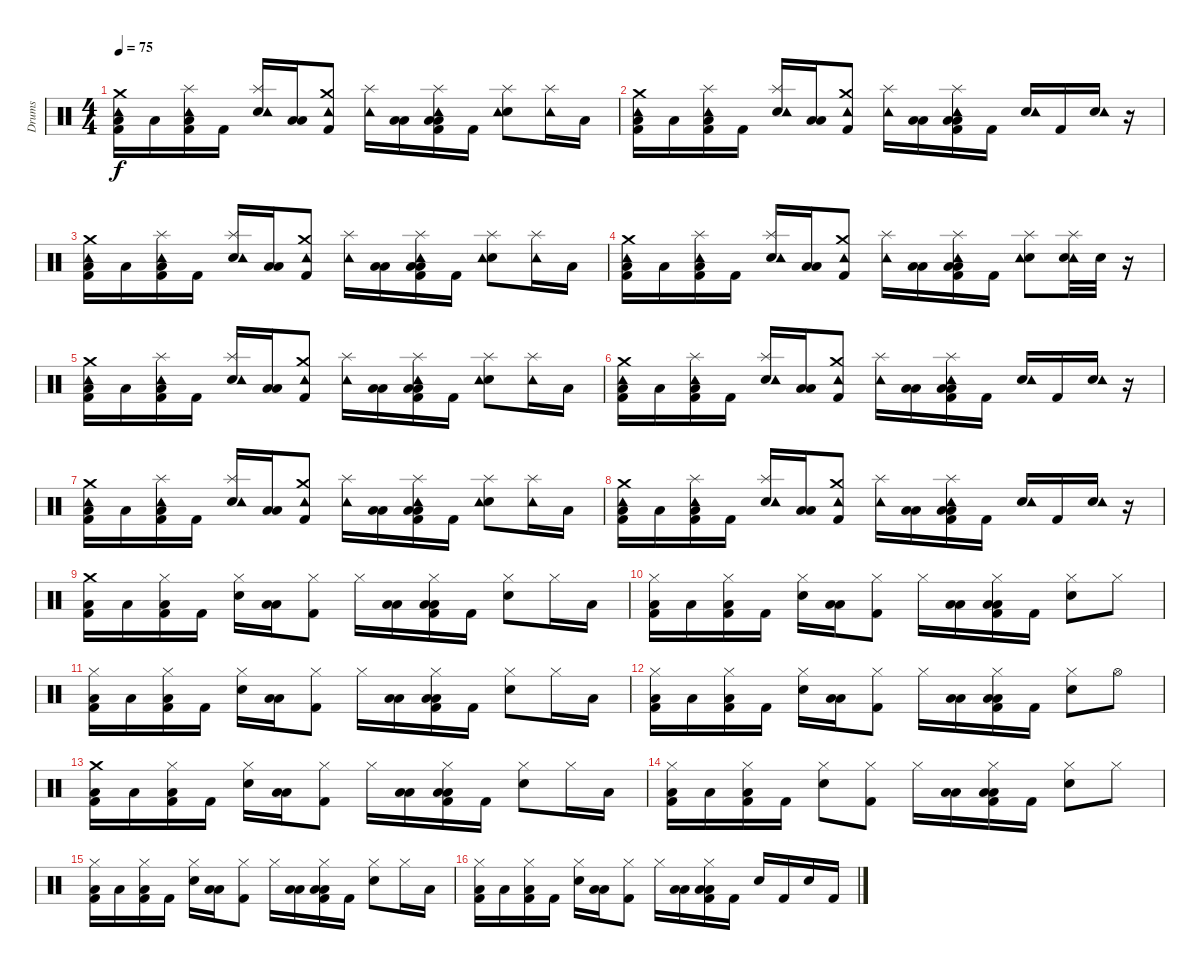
\track ("Drums" "Drums") {instrument percussion}
\staff {score}
\articulation defaults
\ts (4 4)
\tempo 75
\clef neutral
\ks c
("Kick (hit) 2" "Low Floor Tom (hit)" "Crash medium (hit)" "Tambourine (hit)").16{dy f} "Low Tom (hit)".16 ("Kick (hit) 2" "Low Floor Tom (hit)" "Splash (hit)" "Tambourine (hit)").16 "Kick (hit) 2".16 ("Snare (hit) 2" "Splash (hit)" "Tambourine (hit)").16 ("Low Tom (hit)" "Low Floor Tom (hit)").16 ("Kick (hit) 2" "Crash medium (hit)" "Tambourine (hit)").8 ("Splash (hit)" "Tambourine (hit)").16 ("Low Tom (hit)" "Low Floor Tom (hit)").16 ("Kick (hit) 2" "Low Floor Tom (hit)" "Low Tom (hit)" "Splash (hit)" "Tambourine (hit)").16 "Kick (hit) 2".16 ("Snare (hit) 2" "Splash (hit)" "Tambourine (hit)").8 ("Splash (hit)" "Tambourine (hit)").16 "Low Tom (hit)".16 |
("Kick (hit) 2" "Low Floor Tom (hit)" "Crash medium (hit)" "Tambourine (hit)").16 "Low Tom (hit)".16 ("Kick (hit) 2" "Low Floor Tom (hit)" "Splash (hit)" "Tambourine (hit)").16 "Kick (hit) 2".16 ("Snare (hit) 2" "Splash (hit)" "Tambourine (hit)").16 ("Low Tom (hit)" "Low Floor Tom (hit)").16 ("Kick (hit) 2" "Crash medium (hit)" "Tambourine (hit)").8 ("Splash (hit)" "Tambourine (hit)").16 ("Low Tom (hit)" "Low Floor Tom (hit)").16 ("Kick (hit) 2" "Low Floor Tom (hit)" "Low Tom (hit)" "Splash (hit)" "Tambourine (hit)").16 "Kick (hit) 2".16 ("Snare (hit) 2" "Tambourine (hit)").16 "Kick (hit) 2".16 ("Snare (hit) 2" "Tambourine (hit)").16 r.16 |
("Kick (hit) 2" "Low Floor Tom (hit)" "Crash medium (hit)" "Tambourine (hit)").16 "Low Tom (hit)".16 ("Kick (hit) 2" "Low Floor Tom (hit)" "Splash (hit)" "Tambourine (hit)").16 "Kick (hit) 2".16 ("Snare (hit) 2" "Splash (hit)" "Tambourine (hit)").16 ("Low Tom (hit)" "Low Floor Tom (hit)").16 ("Kick (hit) 2" "Crash medium (hit)" "Tambourine (hit)").8 ("Splash (hit)" "Tambourine (hit)").16 ("Low Tom (hit)" "Low Floor Tom (hit)").16 ("Kick (hit) 2" "Low Floor Tom (hit)" "Low Tom (hit)" "Splash (hit)" "Tambourine (hit)").16 "Kick (hit) 2".16 ("Snare (hit) 2" "Splash (hit)" "Tambourine (hit)").8 ("Splash (hit)" "Tambourine (hit)").16 "Low Tom (hit)".16 |
("Kick (hit) 2" "Low Floor Tom (hit)" "Crash medium (hit)" "Tambourine (hit)").16 "Low Tom (hit)".16 ("Kick (hit) 2" "Low Floor Tom (hit)" "Splash (hit)" "Tambourine (hit)").16 "Kick (hit) 2".16 ("Snare (hit) 2" "Splash (hit)" "Tambourine (hit)").16 ("Low Tom (hit)" "Low Floor Tom (hit)").16 ("Kick (hit) 2" "Crash medium (hit)" "Tambourine (hit)").8 ("Splash (hit)" "Tambourine (hit)").16 ("Low Tom (hit)" "Low Floor Tom (hit)").16 ("Kick (hit) 2" "Low Floor Tom (hit)" "Low Tom (hit)" "Splash (hit)" "Tambourine (hit)").16 "Kick (hit) 2".16 ("Snare (hit) 2" "Splash (hit)" "Tambourine (hit)").8 ("Splash (hit)" "Tambourine (hit)" "Snare (hit) 2").32 "Snare (hit) 2".32 r.16 |
("Kick (hit) 2" "Low Floor Tom (hit)" "Crash medium (hit)" "Tambourine (hit)").16 "Low Tom (hit)".16 ("Kick (hit) 2" "Low Floor Tom (hit)" "Splash (hit)" "Tambourine (hit)").16 "Kick (hit) 2".16 ("Snare (hit) 2" "Splash (hit)" "Tambourine (hit)").16 ("Low Tom (hit)" "Low Floor Tom (hit)").16 ("Kick (hit) 2" "Crash medium (hit)" "Tambourine (hit)").8 ("Splash (hit)" "Tambourine (hit)").16 ("Low Tom (hit)" "Low Floor Tom (hit)").16 ("Kick (hit) 2" "Low Floor Tom (hit)" "Low Tom (hit)" "Splash (hit)" "Tambourine (hit)").16 "Kick (hit) 2".16 ("Snare (hit) 2" "Splash (hit)" "Tambourine (hit)").8 ("Splash (hit)" "Tambourine (hit)").16 "Low Tom (hit)".16 |
("Kick (hit) 2" "Low Floor Tom (hit)" "Crash medium (hit)" "Tambourine (hit)").16 "Low Tom (hit)".16 ("Kick (hit) 2" "Low Floor Tom (hit)" "Splash (hit)" "Tambourine (hit)").16 "Kick (hit) 2".16 ("Snare (hit) 2" "Splash (hit)" "Tambourine (hit)").16 ("Low Tom (hit)" "Low Floor Tom (hit)").16 ("Kick (hit) 2" "Crash medium (hit)" "Tambourine (hit)").8 ("Splash (hit)" "Tambourine (hit)").16 ("Low Tom (hit)" "Low Floor Tom (hit)").16 ("Kick (hit) 2" "Low Floor Tom (hit)" "Low Tom (hit)" "Splash (hit)" "Tambourine (hit)").16 "Kick (hit) 2".16 ("Snare (hit) 2" "Tambourine (hit)").16 "Kick (hit) 2".16 ("Snare (hit) 2" "Tambourine (hit)").16 r.16 |
("Kick (hit) 2" "Low Floor Tom (hit)" "Crash medium (hit)" "Tambourine (hit)").16 "Low Tom (hit)".16 ("Kick (hit) 2" "Low Floor Tom (hit)" "Splash (hit)" "Tambourine (hit)").16 "Kick (hit) 2".16 ("Snare (hit) 2" "Splash (hit)" "Tambourine (hit)").16 ("Low Tom (hit)" "Low Floor Tom (hit)").16 ("Kick (hit) 2" "Crash medium (hit)" "Tambourine (hit)").8 ("Splash (hit)" "Tambourine (hit)").16 ("Low Tom (hit)" "Low Floor Tom (hit)").16 ("Kick (hit) 2" "Low Floor Tom (hit)" "Low Tom (hit)" "Splash (hit)" "Tambourine (hit)").16 "Kick (hit) 2".16 ("Snare (hit) 2" "Splash (hit)" "Tambourine (hit)").8 ("Splash (hit)" "Tambourine (hit)").16 "Low Tom (hit)".16 |
("Kick (hit) 2" "Low Floor Tom (hit)" "Crash medium (hit)" "Tambourine (hit)").16 "Low Tom (hit)".16 ("Kick (hit) 2" "Low Floor Tom (hit)" "Splash (hit)" "Tambourine (hit)").16 "Kick (hit) 2".16 ("Snare (hit) 2" "Splash (hit)" "Tambourine (hit)").16 ("Low Tom (hit)" "Low Floor Tom (hit)").16 ("Kick (hit) 2" "Crash medium (hit)" "Tambourine (hit)").8 ("Splash (hit)" "Tambourine (hit)").16 ("Low Tom (hit)" "Low Floor Tom (hit)").16 ("Kick (hit) 2" "Low Floor Tom (hit)" "Low Tom (hit)" "Splash (hit)" "Tambourine (hit)").16 "Kick (hit) 2".16 ("Snare (hit) 2" "Tambourine (hit)").16 "Kick (hit) 2".16 ("Snare (hit) 2" "Tambourine (hit)").16 r.16 |
("Kick (hit) 2" "Low Floor Tom (hit)" "Crash medium (hit)").16 "Low Tom (hit)".16 ("Kick (hit) 2" "Low Floor Tom (hit)" "Hi-Hat (closed)").16 "Kick (hit) 2".16 ("Snare (hit) 2" "Hi-Hat (closed)").16 ("Low Tom (hit)" "Low Floor Tom (hit)").16 ("Kick (hit) 2" "Hi-Hat (closed)").8 "Hi-Hat (closed)".16 ("Low Tom (hit)" "Low Floor Tom (hit)").16 ("Kick (hit) 2" "Low Floor Tom (hit)" "Low Tom (hit)" "Hi-Hat (closed)").16 "Kick (hit) 2".16 ("Snare (hit) 2" "Hi-Hat (closed)").8 "Hi-Hat (closed)".16 "Low Tom (hit)".16 |
("Kick (hit) 2" "Low Floor Tom (hit)" "Hi-Hat (closed)").16 "Low Tom (hit)".16 ("Kick (hit) 2" "Low Floor Tom (hit)" "Hi-Hat (closed)").16 "Kick (hit) 2".16 ("Snare (hit) 2" "Hi-Hat (closed)").16 ("Low Tom (hit)" "Low Floor Tom (hit)").16 ("Kick (hit) 2" "Hi-Hat (closed)").8 "Hi-Hat (closed)".16 ("Low Tom (hit)" "Low Floor Tom (hit)").16 ("Kick (hit) 2" "Low Floor Tom (hit)" "Low Tom (hit)" "Hi-Hat (closed)").16 "Kick (hit) 2".16 ("Snare (hit) 2" "Hi-Hat (closed)").8 "Hi-Hat (closed)".8 |
("Kick (hit) 2" "Low Floor Tom (hit)" "Hi-Hat (closed)").16 "Low Tom (hit)".16 ("Kick (hit) 2" "Low Floor Tom (hit)" "Hi-Hat (closed)").16 "Kick (hit) 2".16 ("Snare (hit) 2" "Hi-Hat (closed)").16 ("Low Tom (hit)" "Low Floor Tom (hit)").16 ("Kick (hit) 2" "Hi-Hat (closed)").8 "Hi-Hat (closed)".16 ("Low Tom (hit)" "Low Floor Tom (hit)").16 ("Kick (hit) 2" "Low Floor Tom (hit)" "Low Tom (hit)" "Hi-Hat (closed)").16 "Kick (hit) 2".16 ("Snare (hit) 2" "Hi-Hat (closed)").8 "Hi-Hat (closed)".16 "Low Tom (hit)".16 |
("Kick (hit) 2" "Low Floor Tom (hit)" "Hi-Hat (closed)").16 "Low Tom (hit)".16 ("Kick (hit) 2" "Low Floor Tom (hit)" "Hi-Hat (closed)").16 "Kick (hit) 2".16 ("Snare (hit) 2" "Hi-Hat (closed)").16 ("Low Tom (hit)" "Low Floor Tom (hit)").16 ("Kick (hit) 2" "Hi-Hat (closed)").8 "Hi-Hat (closed)".16 ("Low Tom (hit)" "Low Floor Tom (hit)").16 ("Kick (hit) 2" "Low Floor Tom (hit)" "Low Tom (hit)" "Hi-Hat (closed)").16 "Kick (hit) 2".16 ("Snare (hit) 2" "Hi-Hat (closed)").8 "Hi-Hat (open)".8 |
("Kick (hit) 2" "Low Floor Tom (hit)" "Crash medium (hit)").16 "Low Tom (hit)".16 ("Kick (hit) 2" "Low Floor Tom (hit)" "Hi-Hat (closed)").16 "Kick (hit) 2".16 ("Snare (hit) 2" "Hi-Hat (closed)").16 ("Low Tom (hit)" "Low Floor Tom (hit)").16 ("Kick (hit) 2" "Hi-Hat (closed)").8 "Hi-Hat (closed)".16 ("Low Tom (hit)" "Low Floor Tom (hit)").16 ("Kick (hit) 2" "Low Floor Tom (hit)" "Low Tom (hit)" "Hi-Hat (closed)").16 "Kick (hit) 2".16 ("Snare (hit) 2" "Hi-Hat (closed)").8 "Hi-Hat (closed)".16 "Low Tom (hit)".16 |
("Kick (hit) 2" "Low Floor Tom (hit)" "Hi-Hat (closed)").16 "Low Tom (hit)".16 ("Kick (hit) 2" "Low Floor Tom (hit)" "Hi-Hat (closed)").16 "Kick (hit) 2".16 ("Snare (hit) 2" "Hi-Hat (closed)").8 ("Kick (hit) 2" "Hi-Hat (closed)").8 "Hi-Hat (closed)".16 ("Low Tom (hit)" "Low Floor Tom (hit)").16 ("Kick (hit) 2" "Low Floor Tom (hit)" "Low Tom (hit)" "Hi-Hat (closed)").16 "Kick (hit) 2".16 ("Snare (hit) 2" "Hi-Hat (closed)").8 "Hi-Hat (closed)".8 |
("Kick (hit) 2" "Low Floor Tom (hit)" "Hi-Hat (closed)").16 "Low Tom (hit)".16 ("Kick (hit) 2" "Low Floor Tom (hit)" "Hi-Hat (closed)").16 "Kick (hit) 2".16 ("Snare (hit) 2" "Hi-Hat (closed)").16 ("Low Tom (hit)" "Low Floor Tom (hit)").16 ("Kick (hit) 2" "Hi-Hat (closed)").8 "Hi-Hat (closed)".16 ("Low Tom (hit)" "Low Floor Tom (hit)").16 ("Kick (hit) 2" "Low Floor Tom (hit)" "Low Tom (hit)" "Hi-Hat (closed)").16 "Kick (hit) 2".16 ("Snare (hit) 2" "Hi-Hat (closed)").8 "Hi-Hat (closed)".16 "Low Tom (hit)".16 |
("Kick (hit) 2" "Low Floor Tom (hit)" "Hi-Hat (closed)").16 "Low Tom (hit)".16 ("Kick (hit) 2" "Low Floor Tom (hit)" "Hi-Hat (closed)").16 "Kick (hit) 2".16 ("Snare (hit) 2" "Hi-Hat (closed)").16 ("Low Tom (hit)" "Low Floor Tom (hit)").16 ("Kick (hit) 2" "Hi-Hat (closed)").8 "Hi-Hat (closed)".16 ("Low Tom (hit)" "Low Floor Tom (hit)").16 ("Kick (hit) 2" "Low Floor Tom (hit)" "Low Tom (hit)" "Hi-Hat (closed)").16 "Kick (hit) 2".16 "Snare (hit) 2".16 "Kick (hit) 2".16 "Snare (hit) 2".16 "Kick (hit) 2".16
